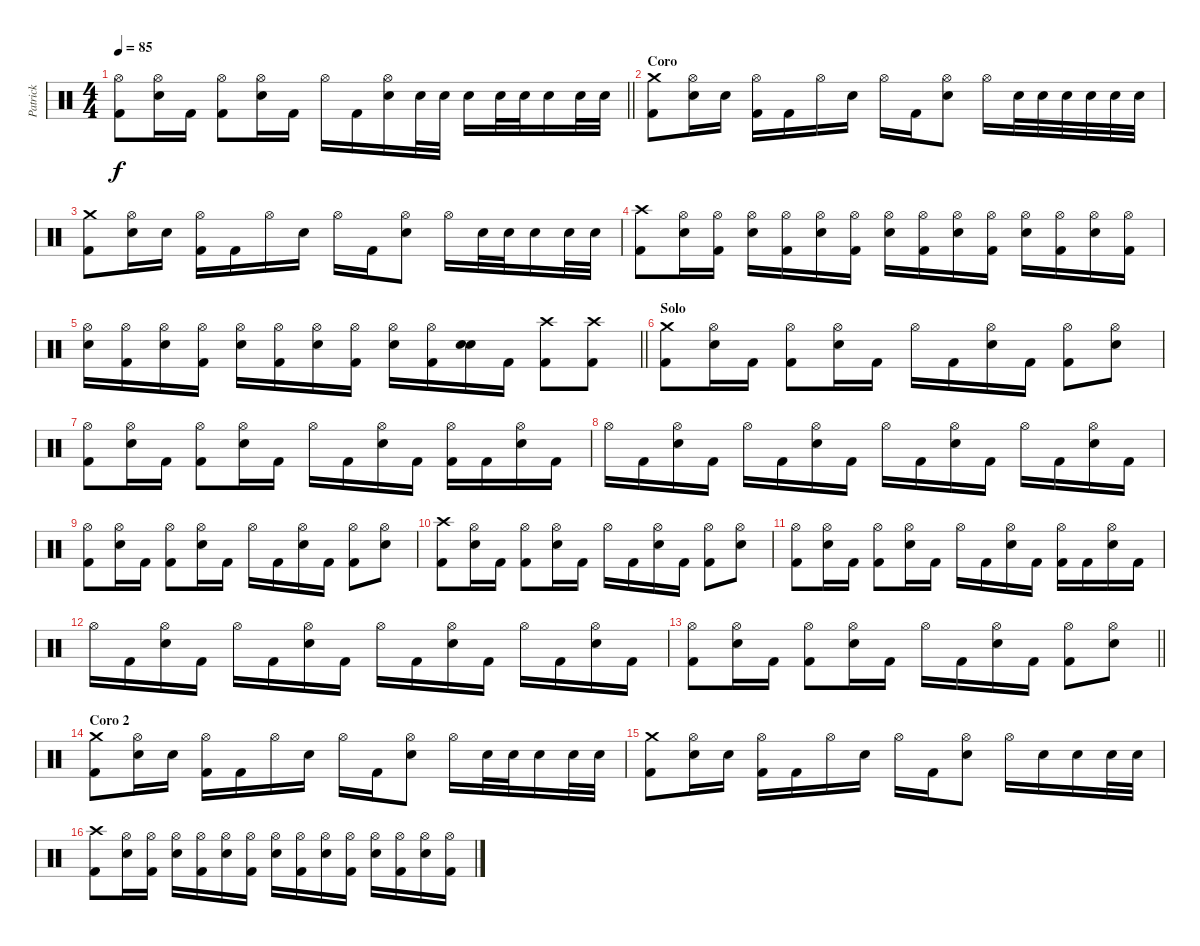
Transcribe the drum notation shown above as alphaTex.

\track ("Patrick" "Patrick") {instrument percussion}
\staff {score}
\articulation defaults
\ts (4 4)
\tempo 85
\clef neutral
\barLineRight lightlight
\ks c
("Hi-Hat (open)" "Kick (hit) 2").8{dy f} ("Hi-Hat (open)" "Electric Snare (hit)").16 "Kick (hit) 2".16 ("Hi-Hat (open)" "Kick (hit) 2").8 ("Hi-Hat (open)" "Electric Snare (hit)").16 "Kick (hit) 2".16 "Hi-Hat (open)".16 "Kick (hit) 2".16 ("Hi-Hat (open)" "Electric Snare (hit)").16 "Electric Snare (hit)".32 "Electric Snare (hit)".32 "Electric Snare (hit)".16 "Electric Snare (hit)".32 "Electric Snare (hit)".32 "Electric Snare (hit)".16 "Electric Snare (hit)".32 "Electric Snare (hit)".32 |
\section ("" "Coro")
("Crash medium (hit)" "Kick (hit) 2").8 ("Hi-Hat (open)" "Electric Snare (hit)").16 "Electric Snare (hit)".16 ("Hi-Hat (open)" "Kick (hit) 2").16 "Kick (hit) 2".16 "Hi-Hat (open)".16 "Electric Snare (hit)".16 "Hi-Hat (open)".16 "Kick (hit) 2".16 ("Hi-Hat (open)" "Electric Snare (hit)").8 "Hi-Hat (open)".16 "Electric Snare (hit)".32 "Electric Snare (hit)".32 "Electric Snare (hit)".32 "Electric Snare (hit)".32 "Electric Snare (hit)".32 "Electric Snare (hit)".32 |
("Crash medium (hit)" "Kick (hit) 2").8 ("Hi-Hat (open)" "Electric Snare (hit)").16 "Electric Snare (hit)".16 ("Hi-Hat (open)" "Kick (hit) 2").16 "Kick (hit) 2".16 "Hi-Hat (open)".16 "Electric Snare (hit)".16 "Hi-Hat (open)".16 "Kick (hit) 2".16 ("Hi-Hat (open)" "Electric Snare (hit)").8 "Hi-Hat (open)".16 "Electric Snare (hit)".32 "Electric Snare (hit)".32 "Electric Snare (hit)".16 "Electric Snare (hit)".32 "Electric Snare (hit)".32 |
("Crash high (hit)" "Kick (hit) 2").8 ("Hi-Hat (open)" "Electric Snare (hit)").16 ("Hi-Hat (open)" "Kick (hit) 2").16 ("Hi-Hat (open)" "Electric Snare (hit)").16 ("Hi-Hat (open)" "Kick (hit) 2").16 ("Hi-Hat (open)" "Electric Snare (hit)").16 ("Hi-Hat (open)" "Kick (hit) 2").16 ("Hi-Hat (open)" "Electric Snare (hit)").16 ("Hi-Hat (open)" "Kick (hit) 2").16 ("Hi-Hat (open)" "Electric Snare (hit)").16 ("Hi-Hat (open)" "Kick (hit) 2").16 ("Hi-Hat (open)" "Electric Snare (hit)").16 ("Hi-Hat (open)" "Kick (hit) 2").16 ("Hi-Hat (open)" "Electric Snare (hit)").16 ("Hi-Hat (open)" "Kick (hit) 2").16 |
\barLineRight lightlight
("Hi-Hat (open)" "Electric Snare (hit)").16 ("Hi-Hat (open)" "Kick (hit) 2").16 ("Hi-Hat (open)" "Electric Snare (hit)").16 ("Hi-Hat (open)" "Kick (hit) 2").16 ("Hi-Hat (open)" "Electric Snare (hit)").16 ("Hi-Hat (open)" "Kick (hit) 2").16 ("Hi-Hat (open)" "Electric Snare (hit)").16 ("Hi-Hat (open)" "Kick (hit) 2").16 ("Hi-Hat (open)" "Electric Snare (hit)").16 ("Hi-Hat (open)" "Kick (hit) 2").16 ("Electric Snare (hit)" "Electric Snare (hit)").16 "Kick (hit) 2".16 ("Crash high (hit)" "Kick (hit) 2").8 ("Crash high (hit)" "Kick (hit) 2").8 |
\section ("" "Solo")
("Crash medium (hit)" "Kick (hit) 2").8 ("Hi-Hat (open)" "Electric Snare (hit)").16 "Kick (hit) 2".16 ("Hi-Hat (open)" "Kick (hit) 2").8 ("Hi-Hat (open)" "Electric Snare (hit)").16 "Kick (hit) 2".16 "Hi-Hat (open)".16 "Kick (hit) 2".16 ("Hi-Hat (open)" "Electric Snare (hit)").16 "Kick (hit) 2".16 ("Hi-Hat (open)" "Kick (hit) 2").8 ("Hi-Hat (open)" "Electric Snare (hit)").8 |
("Hi-Hat (open)" "Kick (hit) 2").8 ("Hi-Hat (open)" "Electric Snare (hit)").16 "Kick (hit) 2".16 ("Hi-Hat (open)" "Kick (hit) 2").8 ("Hi-Hat (open)" "Electric Snare (hit)").16 "Kick (hit) 2".16 "Hi-Hat (open)".16 "Kick (hit) 2".16 ("Hi-Hat (open)" "Electric Snare (hit)").16 "Kick (hit) 2".16 ("Hi-Hat (open)" "Kick (hit) 2").16 "Kick (hit) 2".16 ("Hi-Hat (open)" "Electric Snare (hit)").16 "Kick (hit) 2".16 |
"Hi-Hat (open)".16 "Kick (hit) 2".16 ("Hi-Hat (open)" "Electric Snare (hit)").16 "Kick (hit) 2".16 "Hi-Hat (open)".16 "Kick (hit) 2".16 ("Hi-Hat (open)" "Electric Snare (hit)").16 "Kick (hit) 2".16 "Hi-Hat (open)".16 "Kick (hit) 2".16 ("Hi-Hat (open)" "Electric Snare (hit)").16 "Kick (hit) 2".16 "Hi-Hat (open)".16 "Kick (hit) 2".16 ("Hi-Hat (open)" "Electric Snare (hit)").16 "Kick (hit) 2".16 |
("Hi-Hat (open)" "Kick (hit) 2").8 ("Hi-Hat (open)" "Electric Snare (hit)").16 "Kick (hit) 2".16 ("Hi-Hat (open)" "Kick (hit) 2").8 ("Hi-Hat (open)" "Electric Snare (hit)").16 "Kick (hit) 2".16 "Hi-Hat (open)".16 "Kick (hit) 2".16 ("Hi-Hat (open)" "Electric Snare (hit)").16 "Kick (hit) 2".16 ("Hi-Hat (open)" "Kick (hit) 2").8 ("Hi-Hat (open)" "Electric Snare (hit)").8 |
("Crash high (hit)" "Kick (hit) 2").8 ("Hi-Hat (open)" "Electric Snare (hit)").16 "Kick (hit) 2".16 ("Hi-Hat (open)" "Kick (hit) 2").8 ("Hi-Hat (open)" "Electric Snare (hit)").16 "Kick (hit) 2".16 "Hi-Hat (open)".16 "Kick (hit) 2".16 ("Hi-Hat (open)" "Electric Snare (hit)").16 "Kick (hit) 2".16 ("Hi-Hat (open)" "Kick (hit) 2").8 ("Hi-Hat (open)" "Electric Snare (hit)").8 |
("Hi-Hat (open)" "Kick (hit) 2").8 ("Hi-Hat (open)" "Electric Snare (hit)").16 "Kick (hit) 2".16 ("Hi-Hat (open)" "Kick (hit) 2").8 ("Hi-Hat (open)" "Electric Snare (hit)").16 "Kick (hit) 2".16 "Hi-Hat (open)".16 "Kick (hit) 2".16 ("Hi-Hat (open)" "Electric Snare (hit)").16 "Kick (hit) 2".16 ("Hi-Hat (open)" "Kick (hit) 2").16 "Kick (hit) 2".16 ("Hi-Hat (open)" "Electric Snare (hit)").16 "Kick (hit) 2".16 |
"Hi-Hat (open)".16 "Kick (hit) 2".16 ("Hi-Hat (open)" "Electric Snare (hit)").16 "Kick (hit) 2".16 "Hi-Hat (open)".16 "Kick (hit) 2".16 ("Hi-Hat (open)" "Electric Snare (hit)").16 "Kick (hit) 2".16 "Hi-Hat (open)".16 "Kick (hit) 2".16 ("Hi-Hat (open)" "Electric Snare (hit)").16 "Kick (hit) 2".16 "Hi-Hat (open)".16 "Kick (hit) 2".16 ("Hi-Hat (open)" "Electric Snare (hit)").16 "Kick (hit) 2".16 |
\barLineRight lightlight
("Hi-Hat (open)" "Kick (hit) 2").8 ("Hi-Hat (open)" "Electric Snare (hit)").16 "Kick (hit) 2".16 ("Hi-Hat (open)" "Kick (hit) 2").8 ("Hi-Hat (open)" "Electric Snare (hit)").16 "Kick (hit) 2".16 "Hi-Hat (open)".16 "Kick (hit) 2".16 ("Hi-Hat (open)" "Electric Snare (hit)").16 "Kick (hit) 2".16 ("Hi-Hat (open)" "Kick (hit) 2").8 ("Hi-Hat (open)" "Electric Snare (hit)").8 |
\section ("" "Coro 2")
("Crash medium (hit)" "Kick (hit) 2").8 ("Hi-Hat (open)" "Electric Snare (hit)").16 "Electric Snare (hit)".16 ("Hi-Hat (open)" "Kick (hit) 2").16 "Kick (hit) 2".16 "Hi-Hat (open)".16 "Electric Snare (hit)".16 "Hi-Hat (open)".16 "Kick (hit) 2".16 ("Hi-Hat (open)" "Electric Snare (hit)").8 "Hi-Hat (open)".16 "Electric Snare (hit)".32 "Electric Snare (hit)".32 "Electric Snare (hit)".16 "Electric Snare (hit)".32 "Electric Snare (hit)".32 |
("Crash medium (hit)" "Kick (hit) 2").8 ("Hi-Hat (open)" "Electric Snare (hit)").16 "Electric Snare (hit)".16 ("Hi-Hat (open)" "Kick (hit) 2").16 "Kick (hit) 2".16 "Hi-Hat (open)".16 "Electric Snare (hit)".16 "Hi-Hat (open)".16 "Kick (hit) 2".16 ("Hi-Hat (open)" "Electric Snare (hit)").8 "Hi-Hat (open)".16 "Electric Snare (hit)".16 "Electric Snare (hit)".16 "Electric Snare (hit)".32 "Electric Snare (hit)".32 |
("Crash high (hit)" "Kick (hit) 2").8 ("Hi-Hat (open)" "Electric Snare (hit)").16 ("Hi-Hat (open)" "Kick (hit) 2").16 ("Hi-Hat (open)" "Electric Snare (hit)").16 ("Hi-Hat (open)" "Kick (hit) 2").16 ("Hi-Hat (open)" "Electric Snare (hit)").16 ("Hi-Hat (open)" "Kick (hit) 2").16 ("Hi-Hat (open)" "Electric Snare (hit)").16 ("Hi-Hat (open)" "Kick (hit) 2").16 ("Hi-Hat (open)" "Electric Snare (hit)").16 ("Hi-Hat (open)" "Kick (hit) 2").16 ("Hi-Hat (open)" "Electric Snare (hit)").16 ("Hi-Hat (open)" "Kick (hit) 2").16 ("Hi-Hat (open)" "Electric Snare (hit)").16 ("Hi-Hat (open)" "Kick (hit) 2").16
